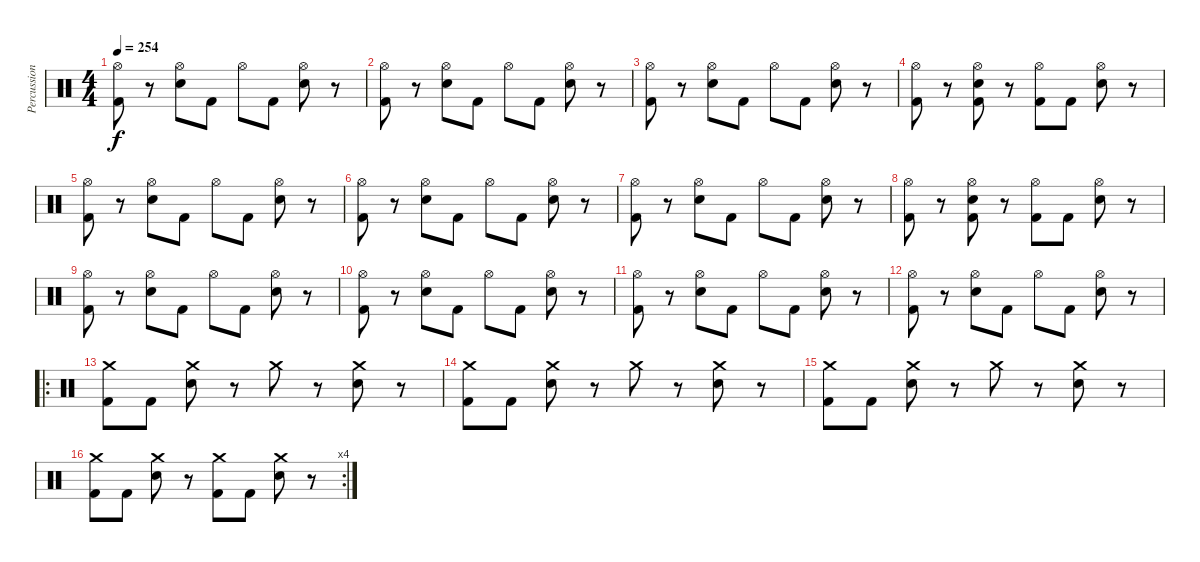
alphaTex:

\track ("Percussion" "Percussion") {instrument percussion}
\staff {score}
\articulation defaults
\ts (4 4)
\tempo 254
\clef neutral
\ks c
("Hi-Hat (open)" "Kick (hit) 2").8{dy f} r.8 ("Hi-Hat (open)" "Electric Snare (hit)").8 "Kick (hit) 2".8 "Hi-Hat (open)".8 "Kick (hit) 2".8 ("Hi-Hat (open)" "Electric Snare (hit)").8 r.8 |
("Hi-Hat (open)" "Kick (hit) 2").8 r.8 ("Hi-Hat (open)" "Electric Snare (hit)").8 "Kick (hit) 2".8 "Hi-Hat (open)".8 "Kick (hit) 2".8 ("Hi-Hat (open)" "Electric Snare (hit)").8 r.8 |
("Hi-Hat (open)" "Kick (hit) 2").8 r.8 ("Hi-Hat (open)" "Electric Snare (hit)").8 "Kick (hit) 2".8 "Hi-Hat (open)".8 "Kick (hit) 2".8 ("Hi-Hat (open)" "Electric Snare (hit)").8 r.8 |
("Hi-Hat (open)" "Kick (hit) 2").8 r.8 ("Hi-Hat (open)" "Electric Snare (hit)" "Kick (hit) 2").8 r.8 ("Hi-Hat (open)" "Kick (hit) 2").8 "Kick (hit) 2".8 ("Hi-Hat (open)" "Electric Snare (hit)").8 r.8 |
("Hi-Hat (open)" "Kick (hit) 2").8 r.8 ("Hi-Hat (open)" "Electric Snare (hit)").8 "Kick (hit) 2".8 "Hi-Hat (open)".8 "Kick (hit) 2".8 ("Hi-Hat (open)" "Electric Snare (hit)").8 r.8 |
("Hi-Hat (open)" "Kick (hit) 2").8 r.8 ("Hi-Hat (open)" "Electric Snare (hit)").8 "Kick (hit) 2".8 "Hi-Hat (open)".8 "Kick (hit) 2".8 ("Hi-Hat (open)" "Electric Snare (hit)").8 r.8 |
("Hi-Hat (open)" "Kick (hit) 2").8 r.8 ("Hi-Hat (open)" "Electric Snare (hit)").8 "Kick (hit) 2".8 "Hi-Hat (open)".8 "Kick (hit) 2".8 ("Hi-Hat (open)" "Electric Snare (hit)").8 r.8 |
("Hi-Hat (open)" "Kick (hit) 2").8 r.8 ("Hi-Hat (open)" "Electric Snare (hit)" "Kick (hit) 2").8 r.8 ("Hi-Hat (open)" "Kick (hit) 2").8 "Kick (hit) 2".8 ("Hi-Hat (open)" "Electric Snare (hit)").8 r.8 |
("Hi-Hat (open)" "Kick (hit) 2").8 r.8 ("Hi-Hat (open)" "Electric Snare (hit)").8 "Kick (hit) 2".8 "Hi-Hat (open)".8 "Kick (hit) 2".8 ("Hi-Hat (open)" "Electric Snare (hit)").8 r.8 |
("Hi-Hat (open)" "Kick (hit) 2").8 r.8 ("Hi-Hat (open)" "Electric Snare (hit)").8 "Kick (hit) 2".8 "Hi-Hat (open)".8 "Kick (hit) 2".8 ("Hi-Hat (open)" "Electric Snare (hit)").8 r.8 |
("Hi-Hat (open)" "Kick (hit) 2").8 r.8 ("Hi-Hat (open)" "Electric Snare (hit)").8 "Kick (hit) 2".8 "Hi-Hat (open)".8 "Kick (hit) 2".8 ("Hi-Hat (open)" "Electric Snare (hit)").8 r.8 |
("Hi-Hat (open)" "Kick (hit) 2").8 r.8 ("Hi-Hat (open)" "Electric Snare (hit)").8 "Kick (hit) 2".8 "Hi-Hat (open)".8 "Kick (hit) 2".8 ("Hi-Hat (open)" "Electric Snare (hit)").8 r.8 |
\ro
("Crash medium (hit)" "Kick (hit) 2").8 "Kick (hit) 2".8 ("Crash medium (hit)" "Electric Snare (hit)").8 r.8 "Crash medium (hit)".8 r.8 ("Crash medium (hit)" "Electric Snare (hit)").8 r.8 |
("Crash medium (hit)" "Kick (hit) 2").8 "Kick (hit) 2".8 ("Crash medium (hit)" "Electric Snare (hit)").8 r.8 "Crash medium (hit)".8 r.8 ("Crash medium (hit)" "Electric Snare (hit)").8 r.8 |
("Crash medium (hit)" "Kick (hit) 2").8 "Kick (hit) 2".8 ("Crash medium (hit)" "Electric Snare (hit)").8 r.8 "Crash medium (hit)".8 r.8 ("Crash medium (hit)" "Electric Snare (hit)").8 r.8 |
\rc 4
("Crash medium (hit)" "Kick (hit) 2").8 "Kick (hit) 2".8 ("Crash medium (hit)" "Electric Snare (hit)").8 r.8 ("Crash medium (hit)" "Kick (hit) 2").8 "Kick (hit) 2".8 ("Crash medium (hit)" "Electric Snare (hit)").8 r.8
